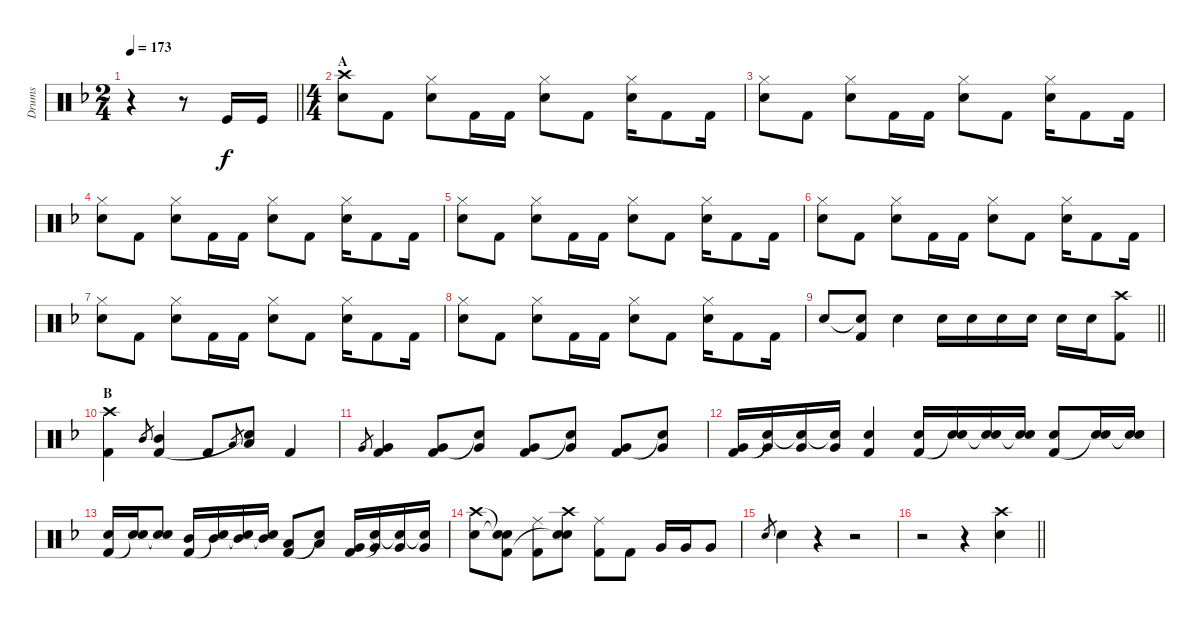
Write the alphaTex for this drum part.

\track ("Drums" "Drums") {instrument percussion}
\staff {score}
\articulation defaults
\ts (2 4)
\tempo 173
\clef neutral
\barLineRight lightlight
\ks dminor
r.4{dy f} r.8 "Kick (hit)".16 "Kick (hit)".16 |
\ts (4 4)
\section ("" "A")
("Crash high (hit)" "Snare (hit) 2").8 "Kick (hit) 2".8 ("Hi-Hat (closed)" "Snare (hit) 2").8 "Kick (hit) 2".16 "Kick (hit) 2".16 ("Hi-Hat (closed)" "Snare (hit) 2").8 "Kick (hit) 2".8 ("Hi-Hat (closed)" "Snare (hit) 2").16 "Kick (hit) 2".8 "Kick (hit) 2".16 |
("Hi-Hat (closed)" "Snare (hit) 2").8 "Kick (hit) 2".8 ("Hi-Hat (closed)" "Snare (hit) 2").8 "Kick (hit) 2".16 "Kick (hit) 2".16 ("Hi-Hat (closed)" "Snare (hit) 2").8 "Kick (hit) 2".8 ("Hi-Hat (closed)" "Snare (hit) 2").16 "Kick (hit) 2".8 "Kick (hit) 2".16 |
("Hi-Hat (closed)" "Snare (hit) 2").8 "Kick (hit) 2".8 ("Hi-Hat (closed)" "Snare (hit) 2").8 "Kick (hit) 2".16 "Kick (hit) 2".16 ("Hi-Hat (closed)" "Snare (hit) 2").8 "Kick (hit) 2".8 ("Hi-Hat (closed)" "Snare (hit) 2").16 "Kick (hit) 2".8 "Kick (hit) 2".16 |
("Hi-Hat (closed)" "Snare (hit) 2").8 "Kick (hit) 2".8 ("Hi-Hat (closed)" "Snare (hit) 2").8 "Kick (hit) 2".16 "Kick (hit) 2".16 ("Hi-Hat (closed)" "Snare (hit) 2").8 "Kick (hit) 2".8 ("Hi-Hat (closed)" "Snare (hit) 2").16 "Kick (hit) 2".8 "Kick (hit) 2".16 |
("Hi-Hat (closed)" "Snare (hit) 2").8 "Kick (hit) 2".8 ("Hi-Hat (closed)" "Snare (hit) 2").8 "Kick (hit) 2".16 "Kick (hit) 2".16 ("Hi-Hat (closed)" "Snare (hit) 2").8 "Kick (hit) 2".8 ("Hi-Hat (closed)" "Snare (hit) 2").16 "Kick (hit) 2".8 "Kick (hit) 2".16 |
("Hi-Hat (closed)" "Snare (hit) 2").8 "Kick (hit) 2".8 ("Hi-Hat (closed)" "Snare (hit) 2").8 "Kick (hit) 2".16 "Kick (hit) 2".16 ("Hi-Hat (closed)" "Snare (hit) 2").8 "Kick (hit) 2".8 ("Hi-Hat (closed)" "Snare (hit) 2").16 "Kick (hit) 2".8 "Kick (hit) 2".16 |
("Hi-Hat (closed)" "Snare (hit) 2").8 "Kick (hit) 2".8 ("Hi-Hat (closed)" "Snare (hit) 2").8 "Kick (hit) 2".16 "Kick (hit) 2".16 ("Hi-Hat (closed)" "Snare (hit) 2").8 "Kick (hit) 2".8 ("Hi-Hat (closed)" "Snare (hit) 2").16 "Kick (hit) 2".8 "Kick (hit) 2".16 |
\barLineRight lightlight "Snare (hit) 2".8
("Snare (hit)"{t} "Kick (hit) 2").8 "Snare (hit) 2".4 "Snare (hit) 2".16 "Snare (hit) 2".16 "Snare (hit) 2".16 "Snare (hit) 2".16 "Snare (hit) 2".16 "Snare (hit) 2".16 ("Crash high (hit)" "Kick (hit) 2").8 |
\section ("" "B")
("Crash high (hit)" "Kick (hit) 2").4 "Mid Tom (hit)".8{gr} ("Mid Tom (hit)" "Kick (hit) 2").4 "Kick (hit) 2".8 "Low Tom (hit)".8{gr} ("Low Tom (hit)" "Snare (hit)"{t}).8 "Kick (hit) 2".4 |
"Very Low Tom (hit)".8{gr} ("Very Low Tom (hit)" "Kick (hit) 2").4 ("Very Low Tom (hit)" "Kick (hit) 2").8 ("Very Low Tom (hit)" "Snare (hit)"{t}).8 ("Very Low Tom (hit)" "Kick (hit) 2").8 ("Very Low Tom (hit)" "Snare (hit)"{t}).8 ("Very Low Tom (hit)" "Kick (hit) 2").8 ("Very Low Tom (hit)" "Snare (hit)"{t}).8 |
("Very Low Tom (hit)" "Kick (hit) 2").16 ("Very Low Tom (hit)" "Snare (hit)"{t}).16 ("Very Low Tom (hit)" "Snare (hit)"{t}).16 ("Very Low Tom (hit)" "Snare (hit)"{t}).16 ("Snare (hit) 2" "Kick (hit) 2").4 ("Snare (hit) 2" "Kick (hit) 2").16 ("Snare (hit) 2" "Snare (hit)"{t}).16 ("Snare (hit) 2" "Snare (hit)"{t}).16 ("Snare (hit) 2" "Snare (hit)"{t}).16 ("Snare (hit) 2" "Kick (hit) 2").8 ("Snare (hit) 2" "Snare (hit)"{t}).16 ("Snare (hit) 2" "Snare (hit)"{t}).16 |
("Snare (hit) 2" "Kick (hit) 2").16 ("Snare (hit) 2" "Snare (hit)"{t}).16 ("Snare (hit) 2" "Snare (hit)"{t}).8 ("Mid Tom (hit)" "Kick (hit) 2").16 ("Mid Tom (hit)" "Snare (hit)"{t}).16 ("Mid Tom (hit)" "Snare (hit)"{t}).16 ("Mid Tom (hit)" "Snare (hit)"{t}).16 ("Low Tom (hit)" "Kick (hit) 2").8 ("Low Tom (hit)" "Snare (hit)"{t}).8 ("Very Low Tom (hit)" "Kick (hit) 2").16 ("Very Low Tom (hit)" "Snare (hit)"{t}).16 ("Very Low Tom (hit)" "Snare (hit)"{t}).16 ("Very Low Tom (hit)" "Snare (hit)"{t}).16 |
("Crash high (hit)" "Snare (hit) 2").8 ("Snare (hit)"{t} "Snare (hit)"{t} "Kick (hit) 2").8 ("Ride (middle)" "Kick (hit) 2").8 ("Crash high (hit)" "Snare (hit) 2" "Snare (hit)"{t}).8 ("Ride (middle)" "Kick (hit) 2").8 "Kick (hit) 2".8 "Very Low Tom (hit)".16 "Very Low Tom (hit)".16 "Very Low Tom (hit)".8 |
"Snare (hit) 2".8{gr} "Snare (hit) 2".4 r.4 r.2 |
\barLineRight lightlight
r.2 r.4 ("Crash high (hit)" "Snare (hit) 2").4
